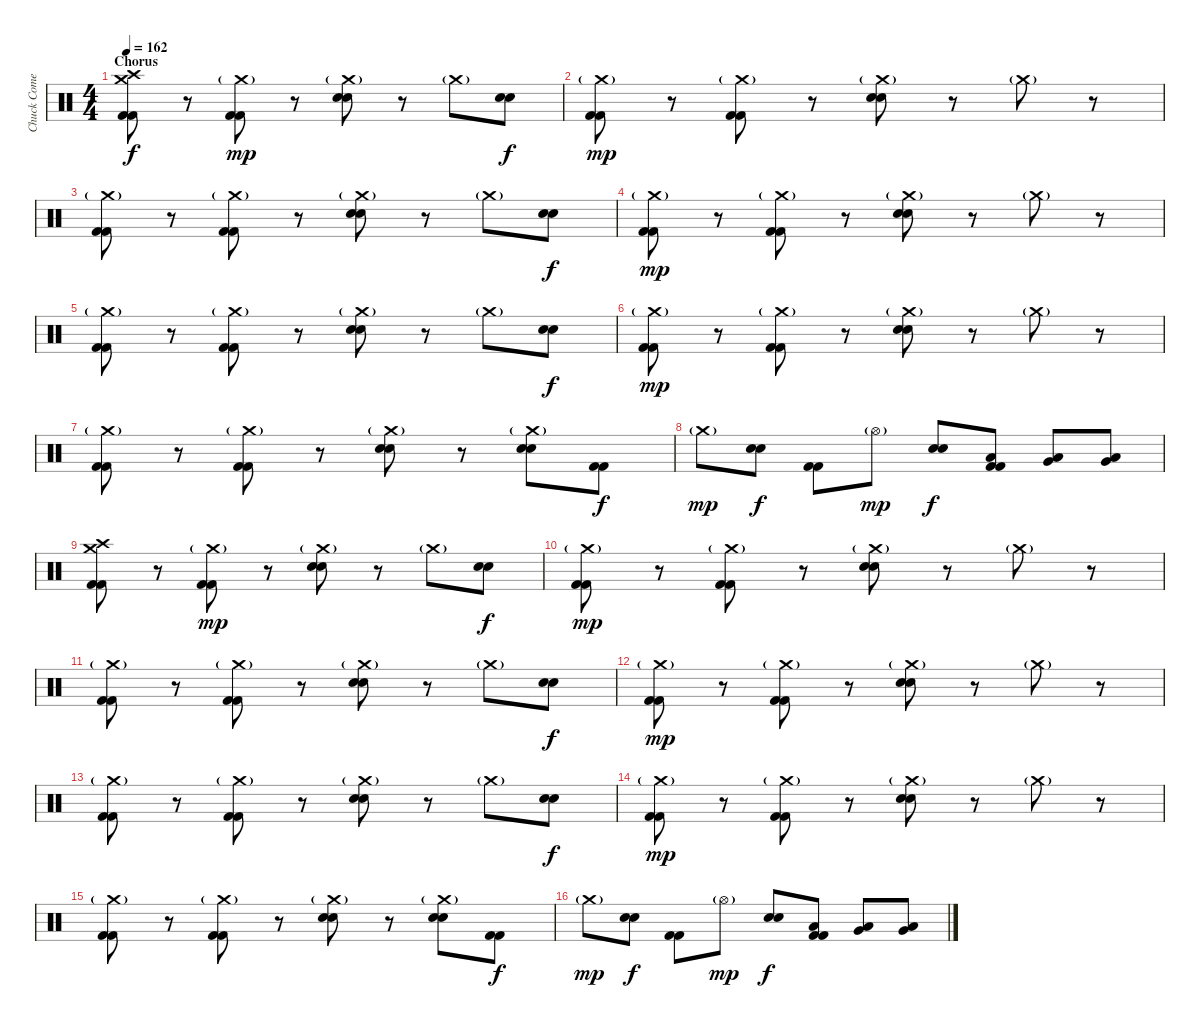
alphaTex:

\track ("Chuck Comeau" "Chuck Come") {instrument percussion}
\staff {score}
\articulation defaults
\ts (4 4)
\section ("" "Chorus")
\tempo 162
\clef neutral
\ks c
("Crash medium (hit)" "Crash high (hit)" "Kick (hit) 2" "Kick (hit) 2").8{dy f} r.8 ("Crash medium (hit)"{g} "Kick (hit) 2" "Kick (hit) 2").8{dy mp} r.8 ("Crash medium (hit)"{g} "Snare (hit) 2" "Snare (hit) 2").8 r.8 "Crash medium (hit)"{g}.8 ("Snare (hit) 2" "Snare (hit) 2").8{dy f} |
("Crash medium (hit)"{g} "Kick (hit) 2" "Kick (hit) 2").8{dy mp} r.8 ("Crash medium (hit)"{g} "Kick (hit) 2" "Kick (hit) 2").8 r.8 ("Crash medium (hit)"{g} "Snare (hit) 2" "Snare (hit) 2").8 r.8 "Crash medium (hit)"{g}.8 r.8 |
("Crash medium (hit)"{g} "Kick (hit) 2" "Kick (hit) 2").8 r.8 ("Crash medium (hit)"{g} "Kick (hit) 2" "Kick (hit) 2").8 r.8 ("Crash medium (hit)"{g} "Snare (hit) 2" "Snare (hit) 2").8 r.8 "Crash medium (hit)"{g}.8 ("Snare (hit) 2" "Snare (hit) 2").8{dy f} |
("Crash medium (hit)"{g} "Kick (hit) 2" "Kick (hit) 2").8{dy mp} r.8 ("Crash medium (hit)"{g} "Kick (hit) 2" "Kick (hit) 2").8 r.8 ("Crash medium (hit)"{g} "Snare (hit) 2" "Snare (hit) 2").8 r.8 "Crash medium (hit)"{g}.8 r.8 |
("Crash medium (hit)"{g} "Kick (hit) 2" "Kick (hit) 2").8 r.8 ("Crash medium (hit)"{g} "Kick (hit) 2" "Kick (hit) 2").8 r.8 ("Crash medium (hit)"{g} "Snare (hit) 2" "Snare (hit) 2").8 r.8 "Crash medium (hit)"{g}.8 ("Snare (hit) 2" "Snare (hit) 2").8{dy f} |
("Crash medium (hit)"{g} "Kick (hit) 2" "Kick (hit) 2").8{dy mp} r.8 ("Crash medium (hit)"{g} "Kick (hit) 2" "Kick (hit) 2").8 r.8 ("Crash medium (hit)"{g} "Snare (hit) 2" "Snare (hit) 2").8 r.8 "Crash medium (hit)"{g}.8 r.8 |
("Crash medium (hit)"{g} "Kick (hit) 2" "Kick (hit) 2").8 r.8 ("Crash medium (hit)"{g} "Kick (hit) 2" "Kick (hit) 2").8 r.8 ("Crash medium (hit)"{g} "Snare (hit) 2" "Snare (hit) 2").8 r.8 ("Crash medium (hit)"{g} "Snare (hit) 2" "Snare (hit) 2").8 ("Kick (hit) 2" "Kick (hit) 2").8{dy f} |
"Crash medium (hit)"{g}.8{dy mp} ("Snare (hit) 2" "Snare (hit) 2").8{dy f} ("Kick (hit) 2" "Kick (hit) 2").8 "Hi-Hat (open)"{g}.8{dy mp} ("Snare (hit) 2" "Snare (hit) 2"{tr (38 16)}).8{dy f} ("Low Tom (hit)" "Kick (hit) 2" "Kick (hit) 2").8 ("Low Tom (hit)" "Very Low Tom (hit)").8 ("Very Low Tom (hit)" "Low Floor Tom (hit)").8 |
("Crash medium (hit)" "Crash high (hit)" "Kick (hit) 2" "Kick (hit) 2").8 r.8 ("Crash medium (hit)"{g} "Kick (hit) 2" "Kick (hit) 2").8{dy mp} r.8 ("Crash medium (hit)"{g} "Snare (hit) 2" "Snare (hit) 2").8 r.8 "Crash medium (hit)"{g}.8 ("Snare (hit) 2" "Snare (hit) 2").8{dy f} |
("Crash medium (hit)"{g} "Kick (hit) 2" "Kick (hit) 2").8{dy mp} r.8 ("Crash medium (hit)"{g} "Kick (hit) 2" "Kick (hit) 2").8 r.8 ("Crash medium (hit)"{g} "Snare (hit) 2" "Snare (hit) 2").8 r.8 "Crash medium (hit)"{g}.8 r.8 |
("Crash medium (hit)"{g} "Kick (hit) 2" "Kick (hit) 2").8 r.8 ("Crash medium (hit)"{g} "Kick (hit) 2" "Kick (hit) 2").8 r.8 ("Crash medium (hit)"{g} "Snare (hit) 2" "Snare (hit) 2").8 r.8 "Crash medium (hit)"{g}.8 ("Snare (hit) 2" "Snare (hit) 2").8{dy f} |
("Crash medium (hit)"{g} "Kick (hit) 2" "Kick (hit) 2").8{dy mp} r.8 ("Crash medium (hit)"{g} "Kick (hit) 2" "Kick (hit) 2").8 r.8 ("Crash medium (hit)"{g} "Snare (hit) 2" "Snare (hit) 2").8 r.8 "Crash medium (hit)"{g}.8 r.8 |
("Crash medium (hit)"{g} "Kick (hit) 2" "Kick (hit) 2").8 r.8 ("Crash medium (hit)"{g} "Kick (hit) 2" "Kick (hit) 2").8 r.8 ("Crash medium (hit)"{g} "Snare (hit) 2" "Snare (hit) 2").8 r.8 "Crash medium (hit)"{g}.8 ("Snare (hit) 2" "Snare (hit) 2").8{dy f} |
("Crash medium (hit)"{g} "Kick (hit) 2" "Kick (hit) 2").8{dy mp} r.8 ("Crash medium (hit)"{g} "Kick (hit) 2" "Kick (hit) 2").8 r.8 ("Crash medium (hit)"{g} "Snare (hit) 2" "Snare (hit) 2").8 r.8 "Crash medium (hit)"{g}.8 r.8 |
("Crash medium (hit)"{g} "Kick (hit) 2" "Kick (hit) 2").8 r.8 ("Crash medium (hit)"{g} "Kick (hit) 2" "Kick (hit) 2").8 r.8 ("Crash medium (hit)"{g} "Snare (hit) 2" "Snare (hit) 2").8 r.8 ("Crash medium (hit)"{g} "Snare (hit) 2" "Snare (hit) 2").8 ("Kick (hit) 2" "Kick (hit) 2").8{dy f} |
"Crash medium (hit)"{g}.8{dy mp} ("Snare (hit) 2" "Snare (hit) 2").8{dy f} ("Kick (hit) 2" "Kick (hit) 2").8 "Hi-Hat (open)"{g}.8{dy mp} ("Snare (hit) 2" "Snare (hit) 2"{tr (38 16)}).8{dy f} ("Low Tom (hit)" "Kick (hit) 2" "Kick (hit) 2").8 ("Low Tom (hit)" "Very Low Tom (hit)").8 ("Very Low Tom (hit)" "Low Floor Tom (hit)").8
